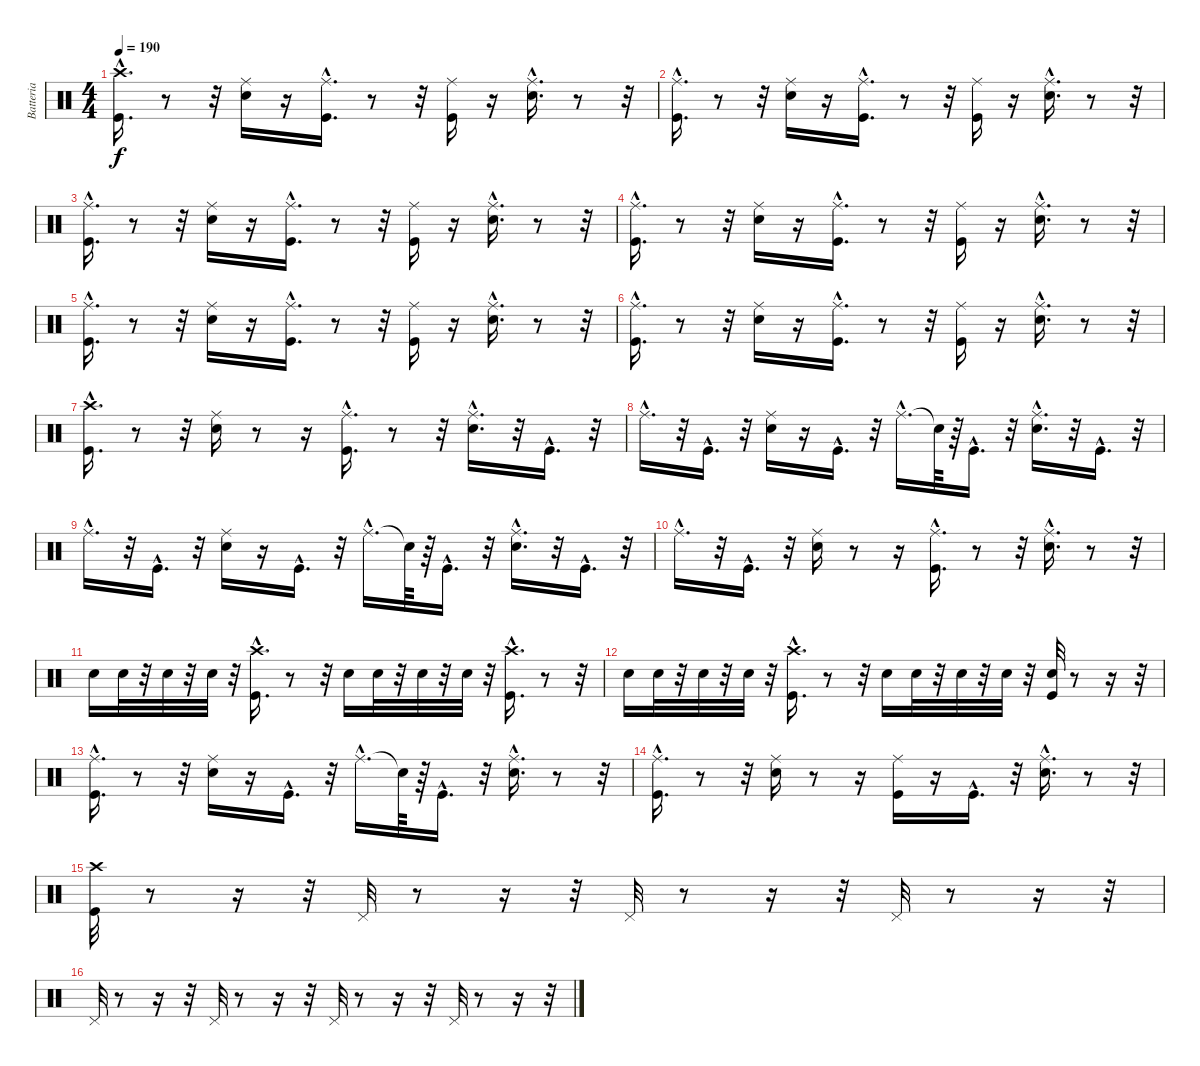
\track ("Batteria" "Batteria") {instrument percussion}
\staff {score}
\articulation defaults
\ts (4 4)
\tempo 190
\clef neutral
\ks c
("Kick (hit)"{hac} "Crash high (hit)"{hac}).16{d dy f} r.8 r.32 ("Snare (hit) 2" "Ride (middle)").16 r.16 ("Kick (hit)"{hac} "Ride (middle)"{hac}).16{d} r.8 r.32 ("Kick (hit)" "Ride (middle)").16 r.16 ("Snare (hit) 2"{hac} "Ride (middle)"{hac}).16{d} r.8 r.32 |
("Kick (hit)"{hac} "Ride (middle)"{hac}).16{d} r.8 r.32 ("Snare (hit) 2" "Ride (middle)").16 r.16 ("Kick (hit)"{hac} "Ride (middle)"{hac}).16{d} r.8 r.32 ("Kick (hit)" "Ride (middle)").16 r.16 ("Snare (hit) 2"{hac} "Ride (middle)"{hac}).16{d} r.8 r.32 |
("Kick (hit)"{hac} "Ride (middle)"{hac}).16{d} r.8 r.32 ("Snare (hit) 2" "Ride (middle)").16 r.16 ("Kick (hit)"{hac} "Ride (middle)"{hac}).16{d} r.8 r.32 ("Kick (hit)" "Ride (middle)").16 r.16 ("Snare (hit) 2"{hac} "Ride (middle)"{hac}).16{d} r.8 r.32 |
("Kick (hit)"{hac} "Ride (middle)"{hac}).16{d} r.8 r.32 ("Snare (hit) 2" "Ride (middle)").16 r.16 ("Kick (hit)"{hac} "Ride (middle)"{hac}).16{d} r.8 r.32 ("Kick (hit)" "Ride (middle)").16 r.16 ("Snare (hit) 2"{hac} "Ride (middle)"{hac}).16{d} r.8 r.32 |
("Kick (hit)"{hac} "Ride (middle)"{hac}).16{d} r.8 r.32 ("Snare (hit) 2" "Ride (middle)").16 r.16 ("Kick (hit)"{hac} "Ride (middle)"{hac}).16{d} r.8 r.32 ("Kick (hit)" "Ride (middle)").16 r.16 ("Snare (hit) 2"{hac} "Ride (middle)"{hac}).16{d} r.8 r.32 |
("Kick (hit)"{hac} "Ride (middle)"{hac}).16{d} r.8 r.32 ("Snare (hit) 2" "Ride (middle)").16 r.16 ("Kick (hit)"{hac} "Ride (middle)"{hac}).16{d} r.8 r.32 ("Kick (hit)" "Ride (middle)").16 r.16 ("Snare (hit) 2"{hac} "Ride (middle)"{hac}).16{d} r.8 r.32 |
("Kick (hit)"{hac} "Crash high (hit)"{hac}).16{d} r.8 r.32 ("Snare (hit) 2" "Ride (middle)").16 r.8 r.16 ("Kick (hit)"{hac} "Ride (middle)"{hac}).16{d} r.8 r.32 ("Snare (hit) 2"{hac} "Ride (middle)"{hac}).16{d} r.32 "Kick (hit)"{hac}.16{d} r.32 |
"Ride (middle)"{hac}.16{d} r.32 "Kick (hit)"{hac}.16{d} r.32 ("Snare (hit) 2" "Ride (middle)").16 r.16 "Kick (hit)"{hac}.16{d} r.32 "Ride (middle)"{hac}.16{d} "Snare (hit)"{t}.64 r.64 "Kick (hit)"{hac}.16{d} r.32 ("Snare (hit) 2"{hac} "Ride (middle)"{hac}).16{d} r.32 "Kick (hit)"{hac}.16{d} r.32 |
"Ride (middle)"{hac}.16{d} r.32 "Kick (hit)"{hac}.16{d} r.32 ("Snare (hit) 2" "Ride (middle)").16 r.16 "Kick (hit)"{hac}.16{d} r.32 "Ride (middle)"{hac}.16{d} "Snare (hit)"{t}.64 r.64 "Kick (hit)"{hac}.16{d} r.32 ("Snare (hit) 2"{hac} "Ride (middle)"{hac}).16{d} r.32 "Kick (hit)"{hac}.16{d} r.32 |
"Ride (middle)"{hac}.16{d} r.32 "Kick (hit)"{hac}.16{d} r.32 ("Snare (hit) 2" "Ride (middle)").16 r.8 r.16 ("Ride (middle)"{hac} "Kick (hit)"{hac}).16{d} r.8 r.32 ("Snare (hit) 2"{hac} "Ride (middle)"{hac}).16{d} r.8 r.32 |
"Snare (hit) 2".16 "Snare (hit) 2".32 r.32 "Snare (hit) 2".32 r.32 "Snare (hit) 2".32 r.32 ("Crash high (hit)"{hac} "Kick (hit)"{hac}).16{d} r.8 r.32 "Snare (hit) 2".16 "Snare (hit) 2".32 r.32 "Snare (hit) 2".32 r.32 "Snare (hit) 2".32 r.32 ("Kick (hit)"{hac} "Crash high (hit)"{hac}).16{d} r.8 r.32 |
"Snare (hit) 2".16 "Snare (hit) 2".32 r.32 "Snare (hit) 2".32 r.32 "Snare (hit) 2".32 r.32 ("Crash high (hit)"{hac} "Kick (hit)"{hac}).16{d} r.8 r.32 "Snare (hit) 2".16 "Snare (hit) 2".32 r.32 "Snare (hit) 2".32 r.32 "Snare (hit) 2".32 r.32 ("Snare (hit) 2" "Kick (hit)").32 r.8 r.16 r.32 |
("Kick (hit)"{hac} "Ride (middle)"{hac}).16{d} r.8 r.32 ("Snare (hit) 2" "Ride (middle)").16 r.16 "Kick (hit)"{hac}.16{d} r.32 "Ride (middle)"{hac}.16{d} "Snare (hit)"{t}.64 r.64 "Kick (hit)"{hac}.16{d} r.32 ("Snare (hit) 2"{hac} "Ride (middle)"{hac}).16{d} r.8 r.32 |
("Kick (hit)"{hac} "Ride (middle)"{hac}).16{d} r.8 r.32 ("Snare (hit) 2" "Ride (middle)").16 r.8 r.16 ("Ride (middle)" "Kick (hit)").16 r.16 "Kick (hit)"{hac}.16{d} r.32 ("Snare (hit) 2"{hac} "Ride (middle)"{hac}).16{d} r.8 r.32 |
("Kick (hit)" "Crash high (hit)").32 r.8 r.16 r.32 "Pedal Hi-Hat (hit)".32 r.8 r.16 r.32 "Pedal Hi-Hat (hit)".32 r.8 r.16 r.32 "Pedal Hi-Hat (hit)".32 r.8 r.16 r.32 |
"Pedal Hi-Hat (hit)".32 r.8 r.16 r.32 "Pedal Hi-Hat (hit)".32 r.8 r.16 r.32 "Pedal Hi-Hat (hit)".32 r.8 r.16 r.32 "Pedal Hi-Hat (hit)".32 r.8 r.16 r.32
